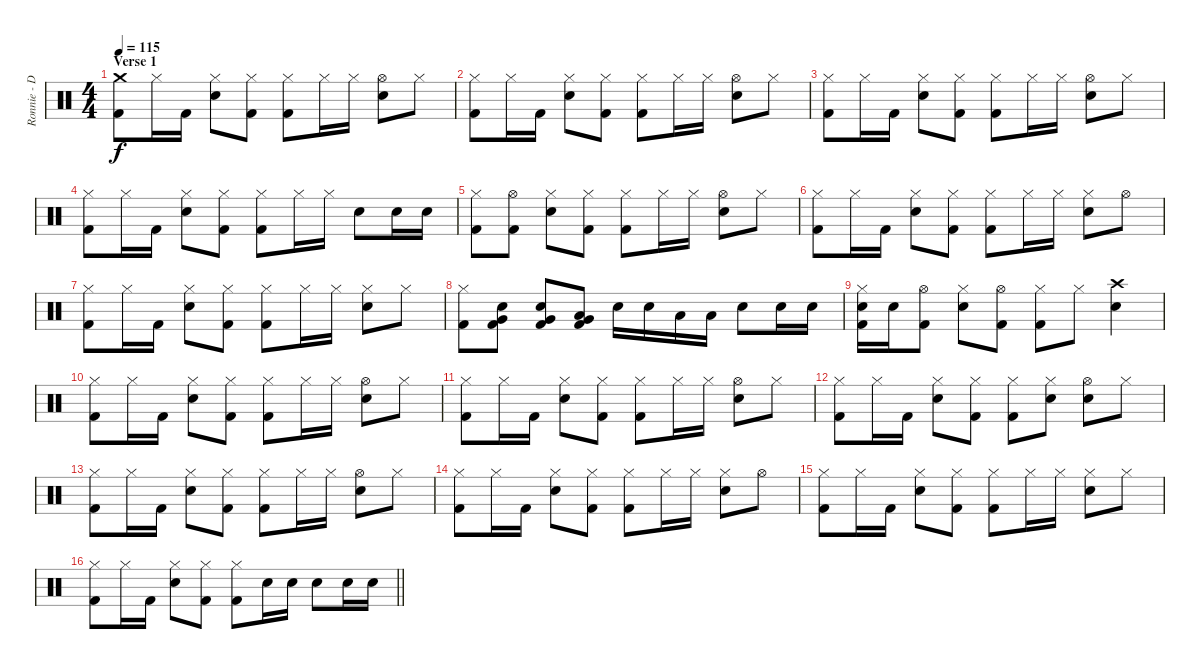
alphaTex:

\track ("Ronnie - Drums" "Ronnie - D") {instrument percussion}
\staff {score}
\articulation defaults
\ts (4 4)
\section ("" "Verse 1")
\tempo 115
\clef neutral
\ks c
("Crash medium (hit)" "Kick (hit) 2").8{dy f} "Hi-Hat (closed)".16 "Kick (hit) 2".16 ("Hi-Hat (closed)" "Electric Snare (hit)").8 ("Hi-Hat (closed)" "Kick (hit) 2").8 ("Hi-Hat (closed)" "Kick (hit) 2").8 "Hi-Hat (closed)".16 "Hi-Hat (closed)".16 ("Hi-Hat (open)" "Electric Snare (hit)").8 "Hi-Hat (closed)".8 |
("Hi-Hat (closed)" "Kick (hit) 2").8 "Hi-Hat (closed)".16 "Kick (hit) 2".16 ("Hi-Hat (closed)" "Electric Snare (hit)").8 ("Hi-Hat (closed)" "Kick (hit) 2").8 ("Hi-Hat (closed)" "Kick (hit) 2").8 "Hi-Hat (closed)".16 "Hi-Hat (closed)".16 ("Hi-Hat (open)" "Electric Snare (hit)").8 "Hi-Hat (closed)".8 |
("Hi-Hat (closed)" "Kick (hit) 2").8 "Hi-Hat (closed)".16 "Kick (hit) 2".16 ("Hi-Hat (closed)" "Electric Snare (hit)").8 ("Hi-Hat (closed)" "Kick (hit) 2").8 ("Hi-Hat (closed)" "Kick (hit) 2").8 "Hi-Hat (closed)".16 "Hi-Hat (closed)".16 ("Hi-Hat (open)" "Electric Snare (hit)").8 "Hi-Hat (closed)".8 |
("Hi-Hat (closed)" "Kick (hit) 2").8 "Hi-Hat (closed)".16 "Kick (hit) 2".16 ("Hi-Hat (closed)" "Electric Snare (hit)").8 ("Hi-Hat (closed)" "Kick (hit) 2").8 ("Hi-Hat (closed)" "Kick (hit) 2").8 "Hi-Hat (closed)".16 "Hi-Hat (closed)".16 "Electric Snare (hit)".8 "Electric Snare (hit)".16 "Electric Snare (hit)".16 |
("Hi-Hat (closed)" "Kick (hit) 2").8 ("Hi-Hat (open)" "Kick (hit) 2").8 ("Hi-Hat (closed)" "Electric Snare (hit)").8 ("Hi-Hat (closed)" "Kick (hit) 2").8 ("Hi-Hat (closed)" "Kick (hit) 2").8 "Hi-Hat (closed)".16 "Hi-Hat (closed)".16 ("Hi-Hat (open)" "Electric Snare (hit)").8 "Hi-Hat (closed)".8 |
("Hi-Hat (closed)" "Kick (hit) 2").8 "Hi-Hat (closed)".16 "Kick (hit) 2".16 ("Hi-Hat (closed)" "Electric Snare (hit)").8 ("Hi-Hat (closed)" "Kick (hit) 2").8 ("Hi-Hat (closed)" "Kick (hit) 2").8 "Hi-Hat (closed)".16 "Hi-Hat (closed)".16 ("Hi-Hat (closed)" "Electric Snare (hit)").8 "Hi-Hat (open)".8 |
("Hi-Hat (closed)" "Kick (hit) 2").8 "Hi-Hat (closed)".16 "Kick (hit) 2".16 ("Hi-Hat (closed)" "Electric Snare (hit)").8 ("Hi-Hat (closed)" "Kick (hit) 2").8 ("Hi-Hat (closed)" "Kick (hit) 2").8 "Hi-Hat (closed)".16 "Hi-Hat (closed)".16 ("Hi-Hat (closed)" "Electric Snare (hit)").8 "Hi-Hat (closed)".8 |
("Hi-Hat (closed)" "Kick (hit) 2").8 ("Very Low Tom (hit)" "Electric Snare (hit)" "Kick (hit) 2").8 ("Very Low Tom (hit)" "Electric Snare (hit)" "Kick (hit) 2").8 ("Very Low Tom (hit)" "Low Tom (hit)" "Kick (hit) 2").8 "Electric Snare (hit)".16 "Electric Snare (hit)".16 "Low Tom (hit)".16 "Low Tom (hit)".16 "Electric Snare (hit)".8 "Electric Snare (hit)".16 "Electric Snare (hit)".16 |
("Hi-Hat (closed)" "Electric Snare (hit)" "Kick (hit) 2").16 "Electric Snare (hit)".16 ("Hi-Hat (open)" "Kick (hit) 2").8 ("Hi-Hat (closed)" "Electric Snare (hit)").8 ("Hi-Hat (open)" "Kick (hit) 2").8 ("Hi-Hat (closed)" "Kick (hit) 2").8 "Hi-Hat (closed)".8 ("Crash high (hit)" "Electric Snare (hit)").4 |
("Hi-Hat (closed)" "Kick (hit) 2").8 "Hi-Hat (closed)".16 "Kick (hit) 2".16 ("Hi-Hat (closed)" "Electric Snare (hit)").8 ("Hi-Hat (closed)" "Kick (hit) 2").8 ("Hi-Hat (closed)" "Kick (hit) 2").8 "Hi-Hat (closed)".16 "Hi-Hat (closed)".16 ("Hi-Hat (open)" "Electric Snare (hit)").8 "Hi-Hat (closed)".8 |
("Hi-Hat (closed)" "Kick (hit) 2").8 "Hi-Hat (closed)".16 "Kick (hit) 2".16 ("Hi-Hat (closed)" "Electric Snare (hit)").8 ("Hi-Hat (closed)" "Kick (hit) 2").8 ("Hi-Hat (closed)" "Kick (hit) 2").8 "Hi-Hat (closed)".16 "Hi-Hat (closed)".16 ("Hi-Hat (open)" "Electric Snare (hit)").8 "Hi-Hat (closed)".8 |
("Hi-Hat (closed)" "Kick (hit) 2").8 "Hi-Hat (closed)".16 "Kick (hit) 2".16 ("Hi-Hat (closed)" "Electric Snare (hit)").8 ("Hi-Hat (closed)" "Kick (hit) 2").8 ("Hi-Hat (closed)" "Kick (hit) 2").8 ("Hi-Hat (closed)" "Electric Snare (hit)").8 ("Hi-Hat (open)" "Electric Snare (hit)").8 "Hi-Hat (closed)".8 |
("Hi-Hat (closed)" "Kick (hit) 2").8 "Hi-Hat (closed)".16 "Kick (hit) 2".16 ("Hi-Hat (closed)" "Electric Snare (hit)").8 ("Hi-Hat (closed)" "Kick (hit) 2").8 ("Hi-Hat (closed)" "Kick (hit) 2").8 "Hi-Hat (closed)".16 "Hi-Hat (closed)".16 ("Hi-Hat (open)" "Electric Snare (hit)").8 "Hi-Hat (closed)".8 |
("Hi-Hat (closed)" "Kick (hit) 2").8 "Hi-Hat (closed)".16 "Kick (hit) 2".16 ("Hi-Hat (closed)" "Electric Snare (hit)").8 ("Hi-Hat (closed)" "Kick (hit) 2").8 ("Hi-Hat (closed)" "Kick (hit) 2").8 "Hi-Hat (closed)".16 "Hi-Hat (closed)".16 ("Hi-Hat (closed)" "Electric Snare (hit)").8 "Hi-Hat (open)".8 |
("Hi-Hat (closed)" "Kick (hit) 2").8 "Hi-Hat (closed)".16 "Kick (hit) 2".16 ("Hi-Hat (closed)" "Electric Snare (hit)").8 ("Hi-Hat (closed)" "Kick (hit) 2").8 ("Hi-Hat (closed)" "Kick (hit) 2").8 "Hi-Hat (closed)".16 "Hi-Hat (closed)".16 ("Hi-Hat (closed)" "Electric Snare (hit)").8 "Hi-Hat (closed)".8 |
\barLineRight lightlight
("Hi-Hat (closed)" "Kick (hit) 2").8 "Hi-Hat (closed)".16 "Kick (hit) 2".16 ("Hi-Hat (closed)" "Electric Snare (hit)").8 ("Hi-Hat (closed)" "Kick (hit) 2").8 ("Hi-Hat (closed)" "Kick (hit) 2").8 "Electric Snare (hit)".16 "Electric Snare (hit)".16 "Electric Snare (hit)".8 "Electric Snare (hit)".16 "Electric Snare (hit)".16
